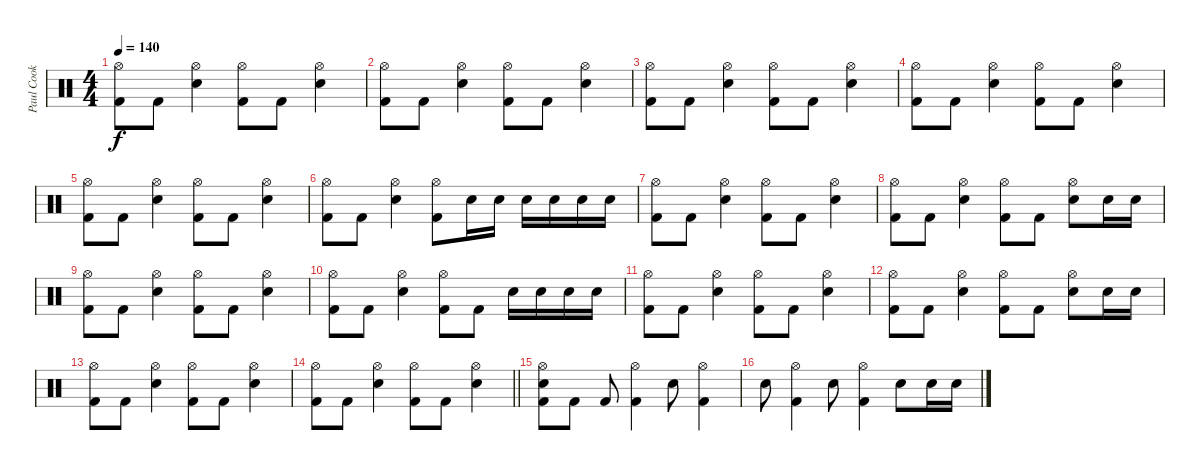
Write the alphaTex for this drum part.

\track ("Paul Cook" "Paul Cook") {instrument percussion}
\staff {score}
\articulation defaults
\ts (4 4)
\tempo 140
\clef neutral
\ks c
("Hi-Hat (open)" "Kick (hit) 2").8{dy f} "Kick (hit) 2".8 ("Hi-Hat (open)" "Electric Snare (hit)").4 ("Hi-Hat (open)" "Kick (hit) 2").8 "Kick (hit) 2".8 ("Hi-Hat (open)" "Electric Snare (hit)").4 |
("Hi-Hat (open)" "Kick (hit) 2").8 "Kick (hit) 2".8 ("Hi-Hat (open)" "Electric Snare (hit)").4 ("Hi-Hat (open)" "Kick (hit) 2").8 "Kick (hit) 2".8 ("Hi-Hat (open)" "Electric Snare (hit)").4 |
("Hi-Hat (open)" "Kick (hit) 2").8 "Kick (hit) 2".8 ("Hi-Hat (open)" "Electric Snare (hit)").4 ("Hi-Hat (open)" "Kick (hit) 2").8 "Kick (hit) 2".8 ("Hi-Hat (open)" "Electric Snare (hit)").4 |
("Hi-Hat (open)" "Kick (hit) 2").8 "Kick (hit) 2".8 ("Hi-Hat (open)" "Electric Snare (hit)").4 ("Hi-Hat (open)" "Kick (hit) 2").8 "Kick (hit) 2".8 ("Hi-Hat (open)" "Electric Snare (hit)").4 |
("Hi-Hat (open)" "Kick (hit) 2").8 "Kick (hit) 2".8 ("Hi-Hat (open)" "Electric Snare (hit)").4 ("Hi-Hat (open)" "Kick (hit) 2").8 "Kick (hit) 2".8 ("Hi-Hat (open)" "Electric Snare (hit)").4 |
("Hi-Hat (open)" "Kick (hit) 2").8 "Kick (hit) 2".8 ("Hi-Hat (open)" "Electric Snare (hit)").4 ("Hi-Hat (open)" "Kick (hit) 2").8 "Electric Snare (hit)".16 "Electric Snare (hit)".16 "Electric Snare (hit)".16 "Electric Snare (hit)".16 "Electric Snare (hit)".16 "Electric Snare (hit)".16 |
("Hi-Hat (open)" "Kick (hit) 2").8 "Kick (hit) 2".8 ("Hi-Hat (open)" "Electric Snare (hit)").4 ("Hi-Hat (open)" "Kick (hit) 2").8 "Kick (hit) 2".8 ("Hi-Hat (open)" "Electric Snare (hit)").4 |
("Hi-Hat (open)" "Kick (hit) 2").8 "Kick (hit) 2".8 ("Hi-Hat (open)" "Electric Snare (hit)").4 ("Hi-Hat (open)" "Kick (hit) 2").8 "Kick (hit) 2".8 ("Hi-Hat (open)" "Electric Snare (hit)").8 "Electric Snare (hit)".16 "Electric Snare (hit)".16 |
("Hi-Hat (open)" "Kick (hit) 2").8 "Kick (hit) 2".8 ("Hi-Hat (open)" "Electric Snare (hit)").4 ("Hi-Hat (open)" "Kick (hit) 2").8 "Kick (hit) 2".8 ("Hi-Hat (open)" "Electric Snare (hit)").4 |
("Hi-Hat (open)" "Kick (hit) 2").8 "Kick (hit) 2".8 ("Hi-Hat (open)" "Electric Snare (hit)").4 ("Hi-Hat (open)" "Kick (hit) 2").8 "Kick (hit) 2".8 "Electric Snare (hit)".16 "Electric Snare (hit)".16 "Electric Snare (hit)".16 "Electric Snare (hit)".16 |
("Hi-Hat (open)" "Kick (hit) 2").8 "Kick (hit) 2".8 ("Hi-Hat (open)" "Electric Snare (hit)").4 ("Hi-Hat (open)" "Kick (hit) 2").8 "Kick (hit) 2".8 ("Hi-Hat (open)" "Electric Snare (hit)").4 |
("Hi-Hat (open)" "Kick (hit) 2").8 "Kick (hit) 2".8 ("Hi-Hat (open)" "Electric Snare (hit)").4 ("Hi-Hat (open)" "Kick (hit) 2").8 "Kick (hit) 2".8 ("Hi-Hat (open)" "Electric Snare (hit)").8 "Electric Snare (hit)".16 "Electric Snare (hit)".16 |
("Hi-Hat (open)" "Kick (hit) 2").8 "Kick (hit) 2".8 ("Hi-Hat (open)" "Electric Snare (hit)").4 ("Hi-Hat (open)" "Kick (hit) 2").8 "Kick (hit) 2".8 ("Hi-Hat (open)" "Electric Snare (hit)").4 |
\barLineRight lightlight
("Hi-Hat (open)" "Kick (hit) 2").8 "Kick (hit) 2".8 ("Hi-Hat (open)" "Electric Snare (hit)").4 ("Hi-Hat (open)" "Kick (hit) 2").8 "Kick (hit) 2".8 ("Hi-Hat (open)" "Electric Snare (hit)").4 |
("Hi-Hat (open)" "Electric Snare (hit)" "Kick (hit) 2").8 "Kick (hit) 2".8 "Kick (hit) 2".8 ("Hi-Hat (open)" "Kick (hit) 2").4 "Electric Snare (hit)".8 ("Hi-Hat (open)" "Kick (hit) 2").4 |
"Electric Snare (hit)".8 ("Hi-Hat (open)" "Kick (hit) 2").4 "Electric Snare (hit)".8 ("Hi-Hat (open)" "Kick (hit) 2").4 "Electric Snare (hit)".8 "Electric Snare (hit)".16 "Electric Snare (hit)".16
